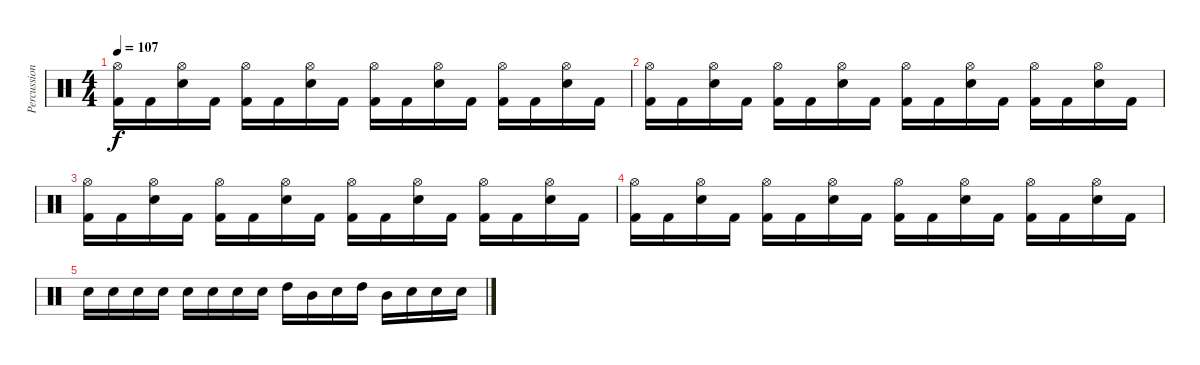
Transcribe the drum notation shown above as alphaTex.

\track ("Percussion" "Percussion") {instrument percussion}
\staff {score}
\articulation defaults
\ts (4 4)
\tempo 107
\clef neutral
\ks c
("Hi-Hat (open)" "Kick (hit) 2").16{dy f} "Kick (hit) 2".16 ("Hi-Hat (open)" "Electric Snare (hit)").16 "Kick (hit) 2".16 ("Hi-Hat (open)" "Kick (hit) 2").16 "Kick (hit) 2".16 ("Hi-Hat (open)" "Electric Snare (hit)").16 "Kick (hit) 2".16 ("Hi-Hat (open)" "Kick (hit) 2").16 "Kick (hit) 2".16 ("Hi-Hat (open)" "Electric Snare (hit)").16 "Kick (hit) 2".16 ("Hi-Hat (open)" "Kick (hit) 2").16 "Kick (hit) 2".16 ("Hi-Hat (open)" "Electric Snare (hit)").16 "Kick (hit) 2".16 |
("Hi-Hat (open)" "Kick (hit) 2").16 "Kick (hit) 2".16 ("Hi-Hat (open)" "Electric Snare (hit)").16 "Kick (hit) 2".16 ("Hi-Hat (open)" "Kick (hit) 2").16 "Kick (hit) 2".16 ("Hi-Hat (open)" "Electric Snare (hit)").16 "Kick (hit) 2".16 ("Hi-Hat (open)" "Kick (hit) 2").16 "Kick (hit) 2".16 ("Hi-Hat (open)" "Electric Snare (hit)").16 "Kick (hit) 2".16 ("Hi-Hat (open)" "Kick (hit) 2").16 "Kick (hit) 2".16 ("Hi-Hat (open)" "Electric Snare (hit)").16 "Kick (hit) 2".16 |
("Hi-Hat (open)" "Kick (hit) 2").16 "Kick (hit) 2".16 ("Hi-Hat (open)" "Electric Snare (hit)").16 "Kick (hit) 2".16 ("Hi-Hat (open)" "Kick (hit) 2").16 "Kick (hit) 2".16 ("Hi-Hat (open)" "Electric Snare (hit)").16 "Kick (hit) 2".16 ("Hi-Hat (open)" "Kick (hit) 2").16 "Kick (hit) 2".16 ("Hi-Hat (open)" "Electric Snare (hit)").16 "Kick (hit) 2".16 ("Hi-Hat (open)" "Kick (hit) 2").16 "Kick (hit) 2".16 ("Hi-Hat (open)" "Electric Snare (hit)").16 "Kick (hit) 2".16 |
("Hi-Hat (open)" "Kick (hit) 2").16 "Kick (hit) 2".16 ("Hi-Hat (open)" "Electric Snare (hit)").16 "Kick (hit) 2".16 ("Hi-Hat (open)" "Kick (hit) 2").16 "Kick (hit) 2".16 ("Hi-Hat (open)" "Electric Snare (hit)").16 "Kick (hit) 2".16 ("Hi-Hat (open)" "Kick (hit) 2").16 "Kick (hit) 2".16 ("Hi-Hat (open)" "Electric Snare (hit)").16 "Kick (hit) 2".16 ("Hi-Hat (open)" "Kick (hit) 2").16 "Kick (hit) 2".16 ("Hi-Hat (open)" "Electric Snare (hit)").16 "Kick (hit) 2".16 |
"Electric Snare (hit)".16 "Electric Snare (hit)".16 "Electric Snare (hit)".16 "Electric Snare (hit)".16 "Electric Snare (hit)".16 "Electric Snare (hit)".16 "Electric Snare (hit)".16 "Electric Snare (hit)".16 "High Tom (hit)".16 "Mid Tom (hit)".16 "Electric Snare (hit)".16 "High Tom (hit)".16 "Mid Tom (hit)".16 "Electric Snare (hit)".16 "Electric Snare (hit)".16 "Electric Snare (hit)".16
